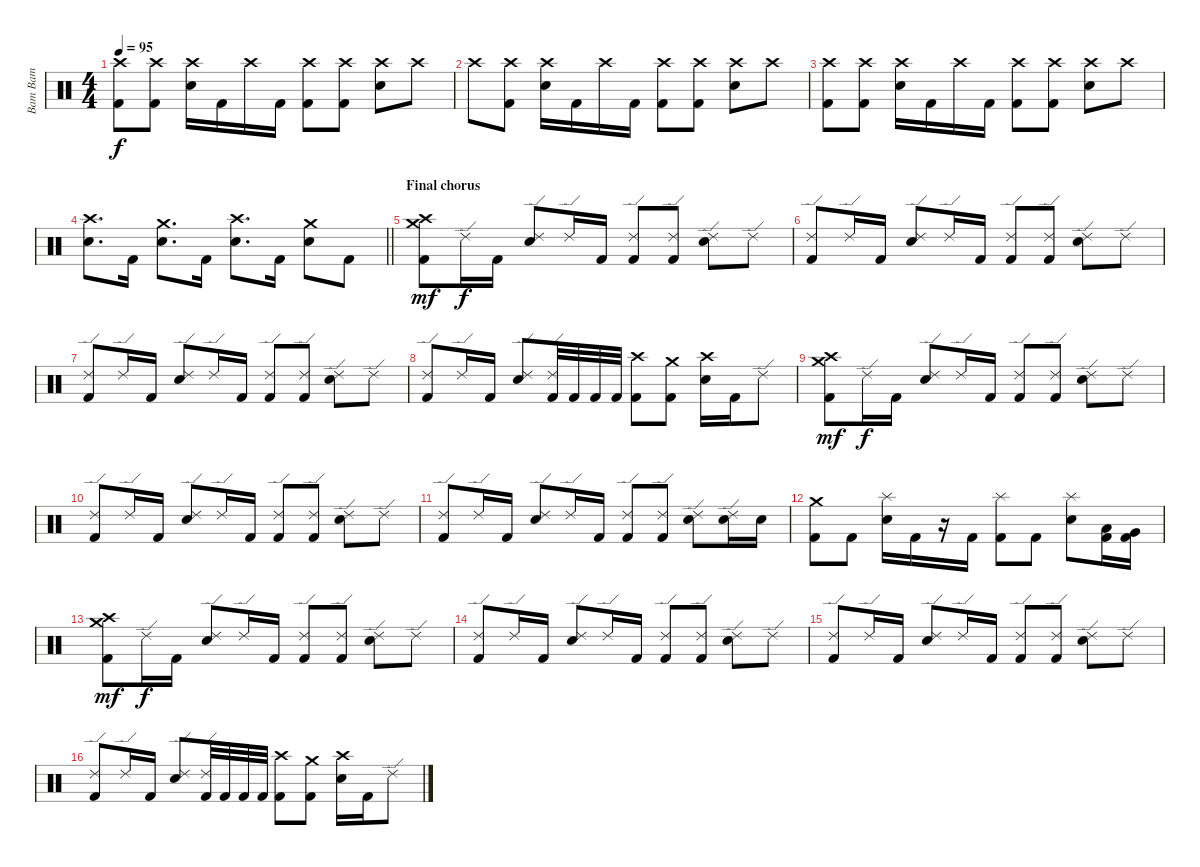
\track ("Bam Bam" "Bam Bam") {instrument percussion}
\staff {score}
\articulation defaults
\ts (4 4)
\tempo 95
\clef neutral
\ks c
("Crash high (hit)" "Kick (hit) 2").8{dy f} ("Crash high (hit)" "Kick (hit) 2").8 ("Crash high (hit)" "Electric Snare (hit)").16 "Kick (hit) 2".16 "Crash high (hit)".16 "Kick (hit) 2".16 ("Crash high (hit)" "Kick (hit) 2").8 ("Crash high (hit)" "Kick (hit) 2").8 ("Crash high (hit)" "Electric Snare (hit)").8 "Crash high (hit)".8 |
"Crash high (hit)".8 ("Crash high (hit)" "Kick (hit) 2").8 ("Crash high (hit)" "Electric Snare (hit)").16 "Kick (hit) 2".16 "Crash high (hit)".16 "Kick (hit) 2".16 ("Crash high (hit)" "Kick (hit) 2").8 ("Crash high (hit)" "Kick (hit) 2").8 ("Crash high (hit)" "Electric Snare (hit)").8 "Crash high (hit)".8 |
("Crash high (hit)" "Kick (hit) 2").8 ("Crash high (hit)" "Kick (hit) 2").8 ("Crash high (hit)" "Electric Snare (hit)").16 "Kick (hit) 2".16 "Crash high (hit)".16 "Kick (hit) 2".16 ("Crash high (hit)" "Kick (hit) 2").8 ("Crash high (hit)" "Kick (hit) 2").8 ("Crash high (hit)" "Electric Snare (hit)").8 "Crash high (hit)".8 |
\barLineRight lightlight
("Crash high (hit)" "Electric Snare (hit)").8{d} "Kick (hit) 2".16 ("Crash medium (hit)" "Electric Snare (hit)").8{d} "Kick (hit) 2".16 ("Crash high (hit)" "Electric Snare (hit)").8{d} "Kick (hit) 2".16 ("Crash medium (hit)" "Electric Snare (hit)").8 "Kick (hit) 2".8 |
\section ("" "Final chorus")
("Crash medium (hit)" "Crash high (hit)" "Kick (hit) 2").8{dy mf} "Ride (edge) 2".16{dy f} "Kick (hit) 2".16 ("Ride (edge) 2" "Electric Snare (hit)").8 "Ride (edge) 2".16 "Kick (hit) 2".16 ("Ride (edge) 2" "Kick (hit) 2").8 ("Ride (edge) 2" "Kick (hit) 2").8 ("Ride (edge) 2" "Electric Snare (hit)").8 "Ride (edge) 2".8 |
("Ride (edge) 2" "Kick (hit) 2").8 "Ride (edge) 2".16 "Kick (hit) 2".16 ("Ride (edge) 2" "Electric Snare (hit)").8 "Ride (edge) 2".16 "Kick (hit) 2".16 ("Ride (edge) 2" "Kick (hit) 2").8 ("Ride (edge) 2" "Kick (hit) 2").8 ("Ride (edge) 2" "Electric Snare (hit)").8 "Ride (edge) 2".8 |
("Ride (edge) 2" "Kick (hit) 2").8 "Ride (edge) 2".16 "Kick (hit) 2".16 ("Ride (edge) 2" "Electric Snare (hit)").8 "Ride (edge) 2".16 "Kick (hit) 2".16 ("Ride (edge) 2" "Kick (hit) 2").8 ("Ride (edge) 2" "Kick (hit) 2").8 ("Ride (edge) 2" "Electric Snare (hit)").8 "Ride (edge) 2".8 |
("Ride (edge) 2" "Kick (hit) 2").8 "Ride (edge) 2".16 "Kick (hit) 2".16 ("Ride (edge) 2" "Electric Snare (hit)").8 ("Ride (edge) 2" "Kick (hit) 2").32 "Kick (hit) 2".32 "Kick (hit) 2".32 "Kick (hit) 2".32 ("Crash high (hit)" "Kick (hit) 2").8 ("Crash medium (hit)" "Kick (hit) 2").8 ("Crash high (hit)" "Electric Snare (hit)").16 "Kick (hit) 2".16 "Ride (edge) 2".8 |
("Crash medium (hit)" "Crash high (hit)" "Kick (hit) 2").8{dy mf} "Ride (edge) 2".16{dy f} "Kick (hit) 2".16 ("Ride (edge) 2" "Electric Snare (hit)").8 "Ride (edge) 2".16 "Kick (hit) 2".16 ("Ride (edge) 2" "Kick (hit) 2").8 ("Ride (edge) 2" "Kick (hit) 2").8 ("Ride (edge) 2" "Electric Snare (hit)").8 "Ride (edge) 2".8 |
("Ride (edge) 2" "Kick (hit) 2").8 "Ride (edge) 2".16 "Kick (hit) 2".16 ("Ride (edge) 2" "Electric Snare (hit)").8 "Ride (edge) 2".16 "Kick (hit) 2".16 ("Ride (edge) 2" "Kick (hit) 2").8 ("Ride (edge) 2" "Kick (hit) 2").8 ("Ride (edge) 2" "Electric Snare (hit)").8 "Ride (edge) 2".8 |
("Ride (edge) 2" "Kick (hit) 2").8 "Ride (edge) 2".16 "Kick (hit) 2".16 ("Ride (edge) 2" "Electric Snare (hit)").8 "Ride (edge) 2".16 "Kick (hit) 2".16 ("Ride (edge) 2" "Kick (hit) 2").8 ("Ride (edge) 2" "Kick (hit) 2").8 ("Ride (edge) 2" "Electric Snare (hit)").8 ("Ride (edge) 2" "Electric Snare (hit)").16 "Electric Snare (hit)".16 |
("Crash medium (hit)" "Kick (hit) 2").8 "Kick (hit) 2".8 ("Splash (hit)" "Electric Snare (hit)").16 "Kick (hit) 2".16 r.16 "Kick (hit) 2".16 ("Splash (hit)" "Kick (hit) 2").8 "Kick (hit) 2".8 ("Splash (hit)" "Electric Snare (hit)").8 ("Low Tom (hit)" "Kick (hit) 2").16 ("Very Low Tom (hit)" "Kick (hit) 2").16 |
("Crash medium (hit)" "Crash high (hit)" "Kick (hit) 2").8{dy mf} "Ride (edge) 2".16{dy f} "Kick (hit) 2".16 ("Ride (edge) 2" "Electric Snare (hit)").8 "Ride (edge) 2".16 "Kick (hit) 2".16 ("Ride (edge) 2" "Kick (hit) 2").8 ("Ride (edge) 2" "Kick (hit) 2").8 ("Ride (edge) 2" "Electric Snare (hit)").8 "Ride (edge) 2".8 |
("Ride (edge) 2" "Kick (hit) 2").8 "Ride (edge) 2".16 "Kick (hit) 2".16 ("Ride (edge) 2" "Electric Snare (hit)").8 "Ride (edge) 2".16 "Kick (hit) 2".16 ("Ride (edge) 2" "Kick (hit) 2").8 ("Ride (edge) 2" "Kick (hit) 2").8 ("Ride (edge) 2" "Electric Snare (hit)").8 "Ride (edge) 2".8 |
("Ride (edge) 2" "Kick (hit) 2").8 "Ride (edge) 2".16 "Kick (hit) 2".16 ("Ride (edge) 2" "Electric Snare (hit)").8 "Ride (edge) 2".16 "Kick (hit) 2".16 ("Ride (edge) 2" "Kick (hit) 2").8 ("Ride (edge) 2" "Kick (hit) 2").8 ("Ride (edge) 2" "Electric Snare (hit)").8 "Ride (edge) 2".8 |
("Ride (edge) 2" "Kick (hit) 2").8 "Ride (edge) 2".16 "Kick (hit) 2".16 ("Ride (edge) 2" "Electric Snare (hit)").8 ("Ride (edge) 2" "Kick (hit) 2").32 "Kick (hit) 2".32 "Kick (hit) 2".32 "Kick (hit) 2".32 ("Crash high (hit)" "Kick (hit) 2").8 ("Crash medium (hit)" "Kick (hit) 2").8 ("Crash high (hit)" "Electric Snare (hit)").16 "Kick (hit) 2".16 "Ride (edge) 2".8
